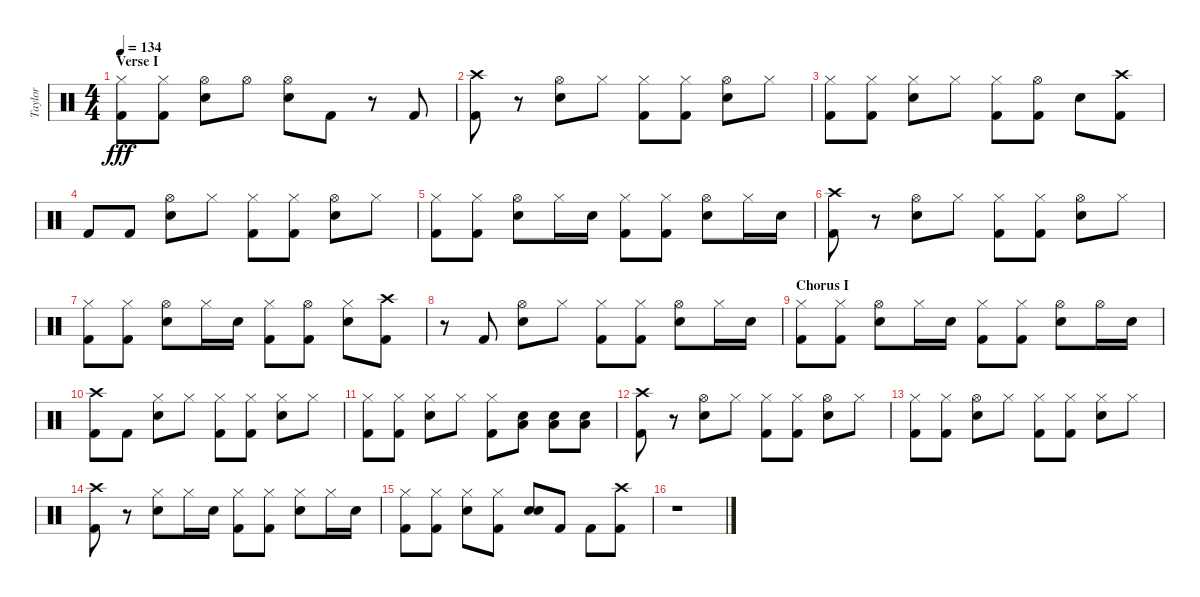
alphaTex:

\track ("Taylor" "Taylor") {instrument percussion}
\staff {score}
\articulation defaults
\ts (4 4)
\section ("" "Verse I")
\tempo 134
\clef neutral
\ks c
("Kick (hit) 2" "Hi-Hat (closed)").8{dy fff} ("Kick (hit) 2" "Hi-Hat (closed)").8 ("Snare (hit) 2" "Hi-Hat (open)").8 "Hi-Hat (open)".8 ("Snare (hit) 2" "Hi-Hat (open)").8 "Kick (hit) 2".8 r.8 "Kick (hit) 2".8 |
("Kick (hit) 2" "Crash high (hit)").8 r.8 ("Snare (hit) 2" "Hi-Hat (open)").8 "Hi-Hat (closed)".8 ("Kick (hit) 2" "Hi-Hat (closed)").8 ("Kick (hit) 2" "Hi-Hat (closed)").8 ("Snare (hit) 2" "Hi-Hat (open)").8 "Hi-Hat (closed)".8 |
("Kick (hit) 2" "Hi-Hat (closed)").8 ("Kick (hit) 2" "Hi-Hat (closed)").8 ("Snare (hit) 2" "Hi-Hat (closed)").8 "Hi-Hat (closed)".8 ("Kick (hit) 2" "Hi-Hat (closed)").8 ("Kick (hit) 2" "Hi-Hat (open)").8 "Snare (hit) 2".8 ("Kick (hit) 2" "Crash high (hit)").8 |
"Kick (hit) 2".8 "Kick (hit) 2".8 ("Snare (hit) 2" "Hi-Hat (open)").8 "Hi-Hat (closed)".8 ("Kick (hit) 2" "Hi-Hat (closed)").8 ("Kick (hit) 2" "Hi-Hat (closed)").8 ("Snare (hit) 2" "Hi-Hat (open)").8 "Hi-Hat (closed)".8 |
("Kick (hit) 2" "Hi-Hat (closed)").8 ("Kick (hit) 2" "Hi-Hat (closed)").8 ("Snare (hit) 2" "Hi-Hat (open)").8 "Hi-Hat (closed)".16 "Snare (hit) 2".16 ("Kick (hit) 2" "Hi-Hat (closed)").8 ("Kick (hit) 2" "Hi-Hat (closed)").8 ("Snare (hit) 2" "Hi-Hat (open)").8 "Hi-Hat (closed)".16 "Snare (hit) 2".16 |
("Kick (hit) 2" "Crash high (hit)").8 r.8 ("Snare (hit) 2" "Hi-Hat (open)").8 "Hi-Hat (closed)".8 ("Kick (hit) 2" "Hi-Hat (closed)").8 ("Kick (hit) 2" "Hi-Hat (closed)").8 ("Snare (hit) 2" "Hi-Hat (open)").8 "Hi-Hat (closed)".8 |
("Kick (hit) 2" "Hi-Hat (closed)").8 ("Kick (hit) 2" "Hi-Hat (closed)").8 ("Snare (hit) 2" "Hi-Hat (open)").8 "Hi-Hat (closed)".16 "Snare (hit) 2".16 ("Kick (hit) 2" "Hi-Hat (closed)").8 ("Kick (hit) 2" "Hi-Hat (open)").8 ("Snare (hit) 2" "Hi-Hat (closed)").8 ("Kick (hit) 2" "Crash high (hit)").8 |
r.8 "Kick (hit) 2".8 ("Snare (hit) 2" "Hi-Hat (open)").8 "Hi-Hat (closed)".8 ("Kick (hit) 2" "Hi-Hat (closed)").8 ("Kick (hit) 2" "Hi-Hat (closed)").8 ("Snare (hit) 2" "Hi-Hat (open)").8 "Hi-Hat (closed)".16 "Snare (hit) 2".16 |
\section ("" "Chorus I")
("Kick (hit) 2" "Hi-Hat (closed)").8 ("Kick (hit) 2" "Hi-Hat (closed)").8 ("Snare (hit) 2" "Hi-Hat (open)").8 "Hi-Hat (closed)".16 "Snare (hit) 2".16 ("Kick (hit) 2" "Hi-Hat (closed)").8 ("Kick (hit) 2" "Hi-Hat (closed)").8 ("Snare (hit) 2" "Hi-Hat (open)").8 "Hi-Hat (open)".16 "Snare (hit) 2".16 |
("Crash high (hit)" "Kick (hit) 2").8 "Kick (hit) 2".8 ("Hi-Hat (closed)" "Snare (hit) 2").8 "Hi-Hat (closed)".8 ("Hi-Hat (closed)" "Kick (hit) 2").8 ("Hi-Hat (closed)" "Kick (hit) 2").8 ("Hi-Hat (closed)" "Snare (hit) 2").8 "Hi-Hat (closed)".8 |
("Hi-Hat (closed)" "Kick (hit) 2").8 ("Hi-Hat (closed)" "Kick (hit) 2").8 ("Hi-Hat (closed)" "Snare (hit) 2").8 "Hi-Hat (closed)".8 ("Hi-Hat (closed)" "Kick (hit) 2").8 ("Snare (hit) 2" "Low Tom (hit)").8 ("Snare (hit) 2" "Low Tom (hit)").8 ("Snare (hit) 2" "Low Tom (hit)").8 |
("Kick (hit) 2" "Crash high (hit)").8 r.8 ("Snare (hit) 2" "Hi-Hat (open)").8 "Hi-Hat (closed)".8 ("Kick (hit) 2" "Hi-Hat (closed)").8 ("Kick (hit) 2" "Hi-Hat (closed)").8 ("Snare (hit) 2" "Hi-Hat (open)").8 "Hi-Hat (closed)".8 |
("Kick (hit) 2" "Hi-Hat (closed)").8 ("Kick (hit) 2" "Hi-Hat (closed)").8 ("Snare (hit) 2" "Hi-Hat (open)").8 "Hi-Hat (closed)".8 ("Kick (hit) 2" "Hi-Hat (closed)").8 ("Kick (hit) 2" "Hi-Hat (closed)").8 ("Snare (hit) 2" "Hi-Hat (closed)").8 "Hi-Hat (closed)".8 |
("Kick (hit) 2" "Crash high (hit)").8 r.8 ("Snare (hit) 2" "Hi-Hat (closed)").8 "Hi-Hat (closed)".16 "Snare (hit) 2".16 ("Kick (hit) 2" "Hi-Hat (closed)").8 ("Kick (hit) 2" "Hi-Hat (closed)").8 ("Snare (hit) 2" "Hi-Hat (closed)").8 "Hi-Hat (closed)".16 "Snare (hit) 2".16 |
("Hi-Hat (closed)" "Kick (hit) 2").8 ("Hi-Hat (closed)" "Kick (hit) 2").8 ("Hi-Hat (closed)" "Snare (hit) 2").8 ("Hi-Hat (closed)" "Kick (hit) 2").8 ("Snare (hit) 2" "Snare (hit) 2").8 "Kick (hit) 2".8 "Kick (hit) 2".8 ("Crash high (hit)" "Kick (hit) 2").8 |
r.1
